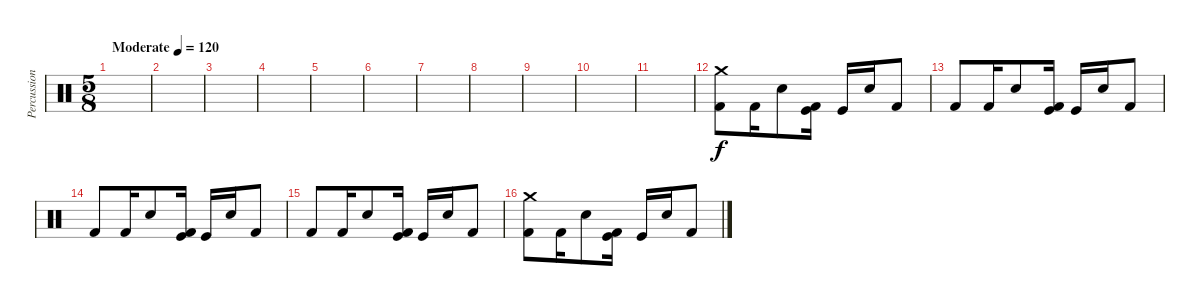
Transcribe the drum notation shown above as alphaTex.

\track ("Percussion" "Percussion") {instrument percussion}
\staff {score}
\articulation defaults
\ts (5 8)
\tempo (120 "Moderate")
\clef neutral
\ks c
|
|
|
|
|
|
|
|
|
|
|
("Kick (hit) 2" "Crash medium (hit)").8 "Kick (hit) 2".16 "Electric Snare (hit)".8 ("Kick (hit) 2" "Kick (hit)").16 "Kick (hit)".16 "Electric Snare (hit)".16 "Kick (hit) 2".8 |
"Kick (hit) 2".8 "Kick (hit) 2".16 "Electric Snare (hit)".8 ("Kick (hit) 2" "Kick (hit)").16 "Kick (hit)".16 "Electric Snare (hit)".16 "Kick (hit) 2".8 |
"Kick (hit) 2".8 "Kick (hit) 2".16 "Electric Snare (hit)".8 ("Kick (hit) 2" "Kick (hit)").16 "Kick (hit)".16 "Electric Snare (hit)".16 "Kick (hit) 2".8 |
"Kick (hit) 2".8 "Kick (hit) 2".16 "Electric Snare (hit)".8 ("Kick (hit) 2" "Kick (hit)").16 "Kick (hit)".16 "Electric Snare (hit)".16 "Kick (hit) 2".8 |
("Kick (hit) 2" "Crash medium (hit)").8 "Kick (hit) 2".16 "Electric Snare (hit)".8 ("Kick (hit) 2" "Kick (hit)").16 "Kick (hit)".16 "Electric Snare (hit)".16 "Kick (hit) 2".8
